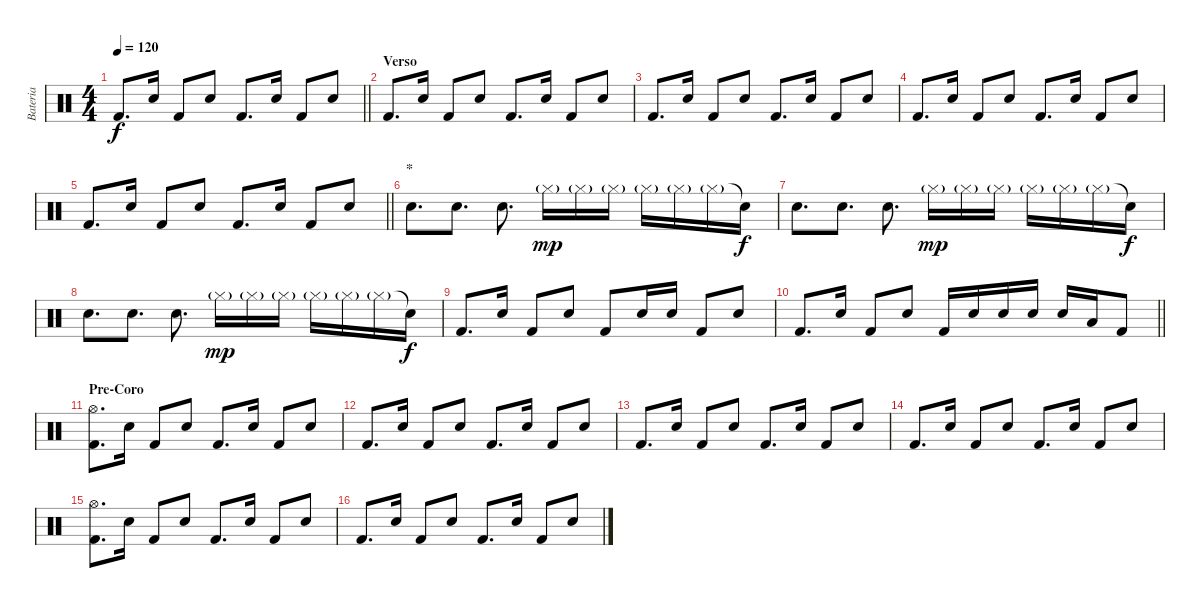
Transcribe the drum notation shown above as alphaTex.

\track ("Bateria" "Bateria") {instrument percussion}
\staff {score}
\articulation defaults
\ts (4 4)
\tempo 120
\clef neutral
\barLineRight lightlight
\ks c "Kick (hit) 2".8{d dy f} "Snare (hit) 2".16 "Kick (hit) 2".8 "Snare (hit) 2".8 "Kick (hit) 2".8{d} "Snare (hit) 2".16 "Kick (hit) 2".8 "Snare (hit) 2".8
|
\section ("" "Verso")
"Kick (hit) 2".8{d} "Snare (hit) 2".16 "Kick (hit) 2".8 "Snare (hit) 2".8 "Kick (hit) 2".8{d} "Snare (hit) 2".16 "Kick (hit) 2".8 "Snare (hit) 2".8 |
"Kick (hit) 2".8{d} "Snare (hit) 2".16 "Kick (hit) 2".8 "Snare (hit) 2".8 "Kick (hit) 2".8{d} "Snare (hit) 2".16 "Kick (hit) 2".8 "Snare (hit) 2".8 |
"Kick (hit) 2".8{d} "Snare (hit) 2".16 "Kick (hit) 2".8 "Snare (hit) 2".8 "Kick (hit) 2".8{d} "Snare (hit) 2".16 "Kick (hit) 2".8 "Snare (hit) 2".8 |
\barLineRight lightlight "Kick (hit) 2".8{d} "Snare (hit) 2".16 "Kick (hit) 2".8 "Snare (hit) 2".8 "Kick (hit) 2".8{d} "Snare (hit) 2".16 "Kick (hit) 2".8 "Snare (hit) 2".8
|
\section ("" "*")
"Electric Snare (hit)".8{d} "Electric Snare (hit)".8{d} "Snare (hit) 2".8{d} "Hi-Hat (closed)"{g}.16{dy mp} "Hi-Hat (closed)"{g}.16 "Hi-Hat (closed)"{g}.16 "Hi-Hat (closed)"{g}.16 "Hi-Hat (closed)"{g}.16 "Hi-Hat (closed)"{g}.16 "Snare (hit)"{t}.16{dy f} |
"Electric Snare (hit)".8{d} "Electric Snare (hit)".8{d} "Snare (hit) 2".8{d} "Hi-Hat (closed)"{g}.16{dy mp} "Hi-Hat (closed)"{g}.16 "Hi-Hat (closed)"{g}.16 "Hi-Hat (closed)"{g}.16 "Hi-Hat (closed)"{g}.16 "Hi-Hat (closed)"{g}.16 "Snare (hit)"{t}.16{dy f} |
"Electric Snare (hit)".8{d} "Electric Snare (hit)".8{d} "Snare (hit) 2".8{d} "Hi-Hat (closed)"{g}.16{dy mp} "Hi-Hat (closed)"{g}.16 "Hi-Hat (closed)"{g}.16 "Hi-Hat (closed)"{g}.16 "Hi-Hat (closed)"{g}.16 "Hi-Hat (closed)"{g}.16 "Snare (hit)"{t}.16{dy f} |
"Kick (hit) 2".8{d} "Snare (hit) 2".16 "Kick (hit) 2".8 "Snare (hit) 2".8 "Kick (hit) 2".8 "Snare (hit) 2".16 "Snare (hit) 2".16 "Kick (hit) 2".8 "Snare (hit) 2".8 |
\barLineRight lightlight "Kick (hit) 2".8{d} "Snare (hit) 2".16 "Kick (hit) 2".8 "Snare (hit) 2".8 "Kick (hit) 2".16 "Snare (hit) 2".16 "Snare (hit) 2".16 "Snare (hit) 2".16 "Snare (hit) 2".16 "Low Floor Tom (hit)".16 "Kick (hit) 2".8
|
\section ("" "Pre-Coro")
("Hi-Hat (open)" "Kick (hit) 2").8{d} "Snare (hit) 2".16 "Kick (hit) 2".8 "Snare (hit) 2".8 "Kick (hit) 2".8{d} "Snare (hit) 2".16 "Kick (hit) 2".8 "Snare (hit) 2".8 |
"Kick (hit) 2".8{d} "Snare (hit) 2".16 "Kick (hit) 2".8 "Snare (hit) 2".8 "Kick (hit) 2".8{d} "Snare (hit) 2".16 "Kick (hit) 2".8 "Snare (hit) 2".8 |
"Kick (hit) 2".8{d} "Snare (hit) 2".16 "Kick (hit) 2".8 "Snare (hit) 2".8 "Kick (hit) 2".8{d} "Snare (hit) 2".16 "Kick (hit) 2".8 "Snare (hit) 2".8 |
"Kick (hit) 2".8{d} "Snare (hit) 2".16 "Kick (hit) 2".8 "Snare (hit) 2".8 "Kick (hit) 2".8{d} "Snare (hit) 2".16 "Kick (hit) 2".8 "Snare (hit) 2".8 |
("Hi-Hat (open)" "Kick (hit) 2").8{d} "Snare (hit) 2".16 "Kick (hit) 2".8 "Snare (hit) 2".8 "Kick (hit) 2".8{d} "Snare (hit) 2".16 "Kick (hit) 2".8 "Snare (hit) 2".8 |
"Kick (hit) 2".8{d} "Snare (hit) 2".16 "Kick (hit) 2".8 "Snare (hit) 2".8 "Kick (hit) 2".8{d} "Snare (hit) 2".16 "Kick (hit) 2".8 "Snare (hit) 2".8
